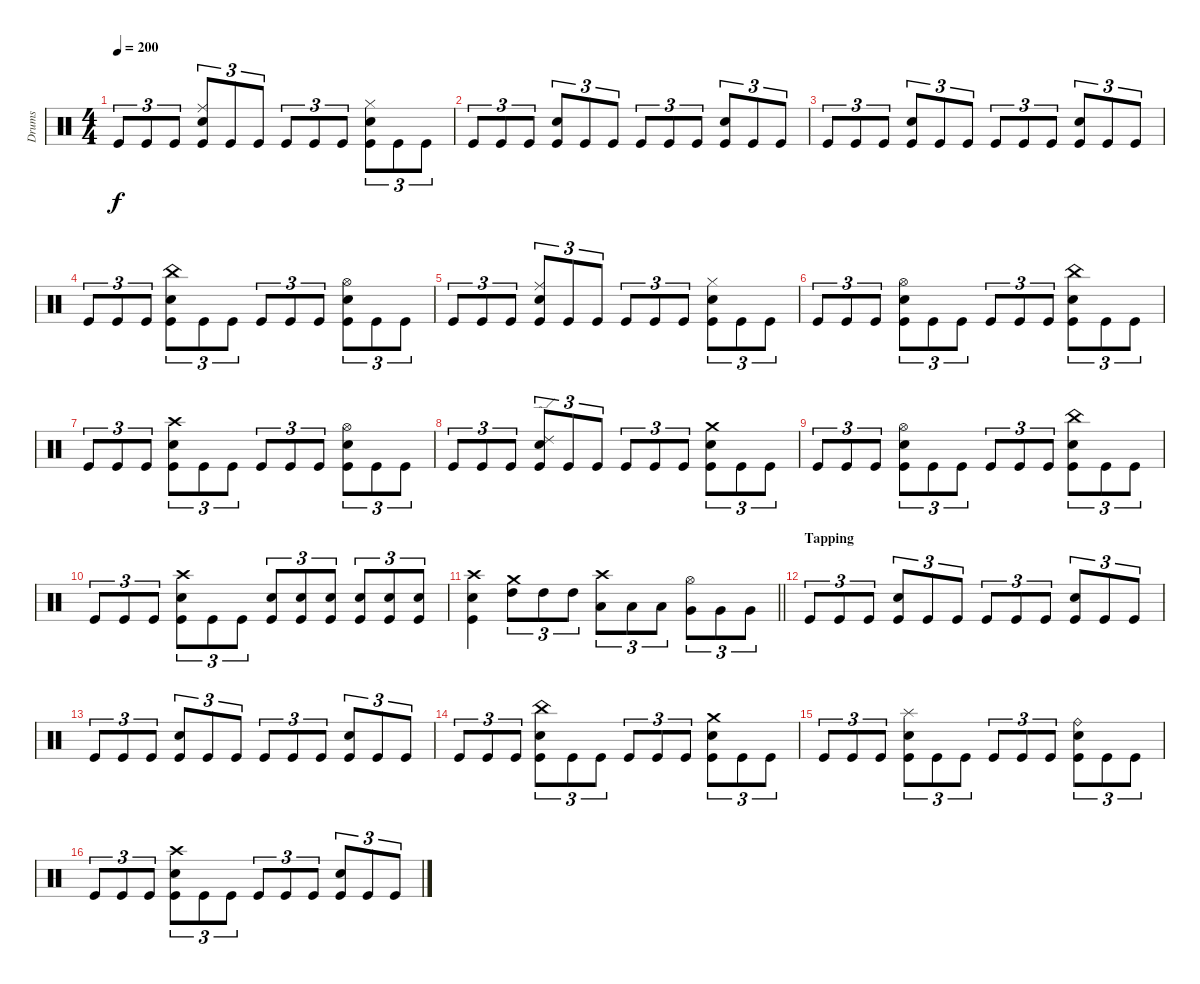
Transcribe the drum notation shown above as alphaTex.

\track ("Drums" "Drums") {instrument percussion}
\staff {score}
\articulation defaults
\ts (4 4)
\tempo 200
\clef neutral
\ks c "Kick (hit)".8{tu (3 2) dy f} "Kick (hit)".8{tu (3 2)} "Kick (hit)".8{tu (3 2)}
("Ride (middle)" "Snare (hit) 2" "Kick (hit)").8{tu (3 2)} "Kick (hit)".8{tu (3 2)} "Kick (hit)".8{tu (3 2)} "Kick (hit)".8{tu (3 2)} "Kick (hit)".8{tu (3 2)} "Kick (hit)".8{tu (3 2)} ("Hi-Hat (closed)" "Snare (hit) 2" "Kick (hit)").8{tu (3 2)} "Kick (hit)".8{tu (3 2)} "Kick (hit)".8{tu (3 2)} |
"Kick (hit)".8{tu (3 2)} "Kick (hit)".8{tu (3 2)} "Kick (hit)".8{tu (3 2)} ("Snare (hit) 2" "Kick (hit)").8{tu (3 2)} "Kick (hit)".8{tu (3 2)} "Kick (hit)".8{tu (3 2)} "Kick (hit)".8{tu (3 2)} "Kick (hit)".8{tu (3 2)} "Kick (hit)".8{tu (3 2)} ("Snare (hit) 2" "Kick (hit)").8{tu (3 2)} "Kick (hit)".8{tu (3 2)} "Kick (hit)".8{tu (3 2)} |
"Kick (hit)".8{tu (3 2)} "Kick (hit)".8{tu (3 2)} "Kick (hit)".8{tu (3 2)} ("Snare (hit) 2" "Kick (hit)").8{tu (3 2)} "Kick (hit)".8{tu (3 2)} "Kick (hit)".8{tu (3 2)} "Kick (hit)".8{tu (3 2)} "Kick (hit)".8{tu (3 2)} "Kick (hit)".8{tu (3 2)} ("Snare (hit) 2" "Kick (hit)").8{tu (3 2)} "Kick (hit)".8{tu (3 2)} "Kick (hit)".8{tu (3 2)} |
"Kick (hit)".8{tu (3 2)} "Kick (hit)".8{tu (3 2)} "Kick (hit)".8{tu (3 2)} ("China (hit)" "Snare (hit) 2" "Kick (hit)").8{tu (3 2)} "Kick (hit)".8{tu (3 2)} "Kick (hit)".8{tu (3 2)} "Kick (hit)".8{tu (3 2)} "Kick (hit)".8{tu (3 2)} "Kick (hit)".8{tu (3 2)} ("Hi-Hat (open)" "Snare (hit) 2" "Kick (hit)").8{tu (3 2)} "Kick (hit)".8{tu (3 2)} "Kick (hit)".8{tu (3 2)} |
"Kick (hit)".8{tu (3 2)} "Kick (hit)".8{tu (3 2)} "Kick (hit)".8{tu (3 2)} ("Ride (middle)" "Snare (hit) 2" "Kick (hit)").8{tu (3 2)} "Kick (hit)".8{tu (3 2)} "Kick (hit)".8{tu (3 2)} "Kick (hit)".8{tu (3 2)} "Kick (hit)".8{tu (3 2)} "Kick (hit)".8{tu (3 2)} ("Hi-Hat (closed)" "Snare (hit) 2" "Kick (hit)").8{tu (3 2)} "Kick (hit)".8{tu (3 2)} "Kick (hit)".8{tu (3 2)} |
"Kick (hit)".8{tu (3 2)} "Kick (hit)".8{tu (3 2)} "Kick (hit)".8{tu (3 2)} ("Hi-Hat (open)" "Snare (hit) 2" "Kick (hit)").8{tu (3 2)} "Kick (hit)".8{tu (3 2)} "Kick (hit)".8{tu (3 2)} "Kick (hit)".8{tu (3 2)} "Kick (hit)".8{tu (3 2)} "Kick (hit)".8{tu (3 2)} ("China (hit)" "Snare (hit) 2" "Kick (hit)").8{tu (3 2)} "Kick (hit)".8{tu (3 2)} "Kick (hit)".8{tu (3 2)} |
"Kick (hit)".8{tu (3 2)} "Kick (hit)".8{tu (3 2)} "Kick (hit)".8{tu (3 2)} ("Crash high (hit)" "Snare (hit) 2" "Kick (hit)").8{tu (3 2)} "Kick (hit)".8{tu (3 2)} "Kick (hit)".8{tu (3 2)} "Kick (hit)".8{tu (3 2)} "Kick (hit)".8{tu (3 2)} "Kick (hit)".8{tu (3 2)} ("Hi-Hat (open)" "Snare (hit) 2" "Kick (hit)").8{tu (3 2)} "Kick (hit)".8{tu (3 2)} "Kick (hit)".8{tu (3 2)} |
"Kick (hit)".8{tu (3 2)} "Kick (hit)".8{tu (3 2)} "Kick (hit)".8{tu (3 2)} ("Ride (edge) 2" "Snare (hit) 2" "Kick (hit)").8{tu (3 2)} "Kick (hit)".8{tu (3 2)} "Kick (hit)".8{tu (3 2)} "Kick (hit)".8{tu (3 2)} "Kick (hit)".8{tu (3 2)} "Kick (hit)".8{tu (3 2)} ("Crash medium (hit)" "Snare (hit) 2" "Kick (hit)").8{tu (3 2)} "Kick (hit)".8{tu (3 2)} "Kick (hit)".8{tu (3 2)} |
"Kick (hit)".8{tu (3 2)} "Kick (hit)".8{tu (3 2)} "Kick (hit)".8{tu (3 2)} ("Hi-Hat (open)" "Snare (hit) 2" "Kick (hit)").8{tu (3 2)} "Kick (hit)".8{tu (3 2)} "Kick (hit)".8{tu (3 2)} "Kick (hit)".8{tu (3 2)} "Kick (hit)".8{tu (3 2)} "Kick (hit)".8{tu (3 2)} ("China (hit)" "Snare (hit) 2" "Kick (hit)").8{tu (3 2)} "Kick (hit)".8{tu (3 2)} "Kick (hit)".8{tu (3 2)} |
"Kick (hit)".8{tu (3 2)} "Kick (hit)".8{tu (3 2)} "Kick (hit)".8{tu (3 2)} ("Crash high (hit)" "Snare (hit) 2" "Kick (hit)").8{tu (3 2)} "Kick (hit)".8{tu (3 2)} "Kick (hit)".8{tu (3 2)} ("Snare (hit) 2" "Kick (hit)").8{tu (3 2)} ("Snare (hit) 2" "Kick (hit)").8{tu (3 2)} ("Snare (hit) 2" "Kick (hit)").8{tu (3 2)} ("Snare (hit) 2" "Kick (hit)").8{tu (3 2)} ("Snare (hit) 2" "Kick (hit)").8{tu (3 2)} ("Snare (hit) 2" "Kick (hit)").8{tu (3 2)} |
\barLineRight lightlight
("Crash high (hit)" "Snare (hit) 2" "Kick (hit)").4 ("Crash medium (hit)" "High Tom (hit)").8{tu (3 2)} "High Tom (hit)".8{tu (3 2)} "High Tom (hit)".8{tu (3 2)} ("Crash high (hit)" "Low Tom (hit)").8{tu (3 2)} "Low Tom (hit)".8{tu (3 2)} "Low Tom (hit)".8{tu (3 2)} ("Hi-Hat (open)" "Very Low Tom (hit)").8{tu (3 2)} "Very Low Tom (hit)".8{tu (3 2)} "Very Low Tom (hit)".8{tu (3 2)} |
\section ("" "Tapping")
"Kick (hit)".8{tu (3 2)} "Kick (hit)".8{tu (3 2)} "Kick (hit)".8{tu (3 2)} ("Snare (hit) 2" "Kick (hit)").8{tu (3 2)} "Kick (hit)".8{tu (3 2)} "Kick (hit)".8{tu (3 2)} "Kick (hit)".8{tu (3 2)} "Kick (hit)".8{tu (3 2)} "Kick (hit)".8{tu (3 2)} ("Snare (hit) 2" "Kick (hit)").8{tu (3 2)} "Kick (hit)".8{tu (3 2)} "Kick (hit)".8{tu (3 2)} |
"Kick (hit)".8{tu (3 2)} "Kick (hit)".8{tu (3 2)} "Kick (hit)".8{tu (3 2)} ("Snare (hit) 2" "Kick (hit)").8{tu (3 2)} "Kick (hit)".8{tu (3 2)} "Kick (hit)".8{tu (3 2)} "Kick (hit)".8{tu (3 2)} "Kick (hit)".8{tu (3 2)} "Kick (hit)".8{tu (3 2)} ("Snare (hit) 2" "Kick (hit)").8{tu (3 2)} "Kick (hit)".8{tu (3 2)} "Kick (hit)".8{tu (3 2)} |
"Kick (hit)".8{tu (3 2)} "Kick (hit)".8{tu (3 2)} "Kick (hit)".8{tu (3 2)} ("China (hit)" "Snare (hit) 2" "Kick (hit)").8{tu (3 2)} "Kick (hit)".8{tu (3 2)} "Kick (hit)".8{tu (3 2)} "Kick (hit)".8{tu (3 2)} "Kick (hit)".8{tu (3 2)} "Kick (hit)".8{tu (3 2)} ("Crash medium (hit)" "Snare (hit) 2" "Kick (hit)").8{tu (3 2)} "Kick (hit)".8{tu (3 2)} "Kick (hit)".8{tu (3 2)} |
"Kick (hit)".8{tu (3 2)} "Kick (hit)".8{tu (3 2)} "Kick (hit)".8{tu (3 2)} ("Splash (hit)" "Snare (hit) 2" "Kick (hit)").8{tu (3 2)} "Kick (hit)".8{tu (3 2)} "Kick (hit)".8{tu (3 2)} "Kick (hit)".8{tu (3 2)} "Kick (hit)".8{tu (3 2)} "Kick (hit)".8{tu (3 2)} ("Ride (bell)" "Snare (hit) 2" "Kick (hit)").8{tu (3 2)} "Kick (hit)".8{tu (3 2)} "Kick (hit)".8{tu (3 2)} |
"Kick (hit)".8{tu (3 2)} "Kick (hit)".8{tu (3 2)} "Kick (hit)".8{tu (3 2)} ("Crash high (hit)" "Snare (hit) 2" "Kick (hit)").8{tu (3 2)} "Kick (hit)".8{tu (3 2)} "Kick (hit)".8{tu (3 2)} "Kick (hit)".8{tu (3 2)} "Kick (hit)".8{tu (3 2)} "Kick (hit)".8{tu (3 2)} ("Snare (hit) 2" "Kick (hit)").8{tu (3 2)} "Kick (hit)".8{tu (3 2)} "Kick (hit)".8{tu (3 2)}
